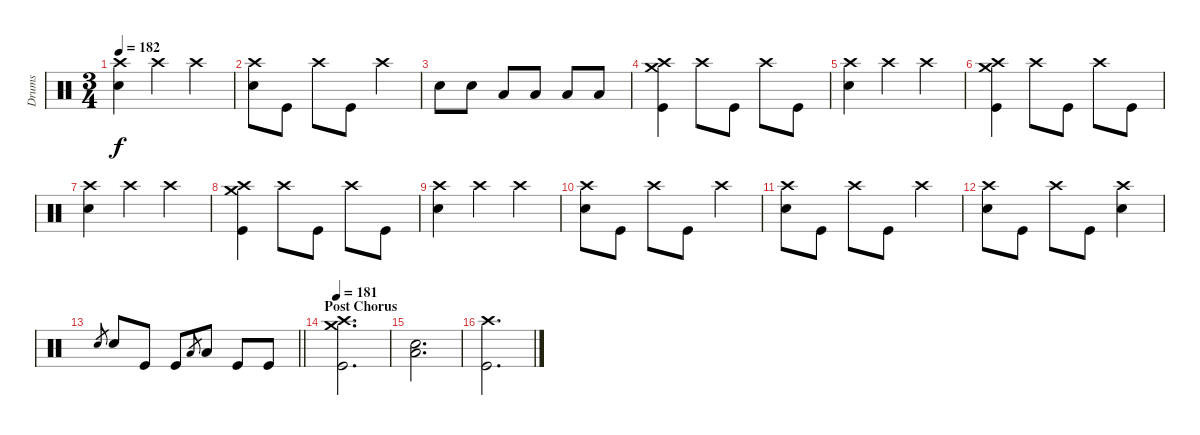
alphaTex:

\track ("Drums" "Drums") {instrument percussion}
\staff {score}
\articulation defaults
\ts (3 4)
\tempo 182
\clef neutral
\ks c
("Crash high (hit)" "Electric Snare (hit)").4{dy f} "Crash high (hit)".4 "Crash high (hit)".4 |
("Crash high (hit)" "Electric Snare (hit)").8 "Kick (hit)".8 "Crash high (hit)".8 "Kick (hit)".8 "Crash high (hit)".4 |
"Electric Snare (hit)".8 "Electric Snare (hit)".8 "Low Tom (hit)".8 "Low Tom (hit)".8 "Low Floor Tom (hit)".8 "Low Floor Tom (hit)".8 |
("Crash high (hit)" "Crash medium (hit)" "Kick (hit)").4 "Crash high (hit)".8 "Kick (hit)".8 "Crash high (hit)".8 "Kick (hit)".8 |
("Crash high (hit)" "Electric Snare (hit)").4 "Crash high (hit)".4 "Crash high (hit)".4 |
("Crash high (hit)" "Crash medium (hit)" "Kick (hit)").4 "Crash high (hit)".8 "Kick (hit)".8 "Crash high (hit)".8 "Kick (hit)".8 |
("Crash high (hit)" "Electric Snare (hit)").4 "Crash high (hit)".4 "Crash high (hit)".4 |
("Crash high (hit)" "Crash medium (hit)" "Kick (hit)").4 "Crash high (hit)".8 "Kick (hit)".8 "Crash high (hit)".8 "Kick (hit)".8 |
("Crash high (hit)" "Electric Snare (hit)").4 "Crash high (hit)".4 "Crash high (hit)".4 |
("Crash high (hit)" "Electric Snare (hit)").8 "Kick (hit)".8 "Crash high (hit)".8 "Kick (hit)".8 "Crash high (hit)".4 |
("Crash high (hit)" "Electric Snare (hit)").8 "Kick (hit)".8 "Crash high (hit)".8 "Kick (hit)".8 "Crash high (hit)".4 |
("Crash high (hit)" "Electric Snare (hit)").8 "Kick (hit)".8 "Crash high (hit)".8 "Kick (hit)".8 ("Crash high (hit)" "Electric Snare (hit)").4 |
\barLineRight lightlight "Electric Snare (hit)".8{gr} "Electric Snare (hit)".8 "Kick (hit)".8 "Kick (hit)".8 "Low Floor Tom (hit)".8{gr} "Low Floor Tom (hit)".8 "Kick (hit)".8 "Kick (hit)".8
|
\section ("" "Post Chorus")
\tempo 181
("Crash high (hit)" "Crash medium (hit)" "Kick (hit)").2{d} |
("Electric Snare (hit)" "Low Floor Tom (hit)").2{d} |
("Crash high (hit)" "Kick (hit)").2{d}
